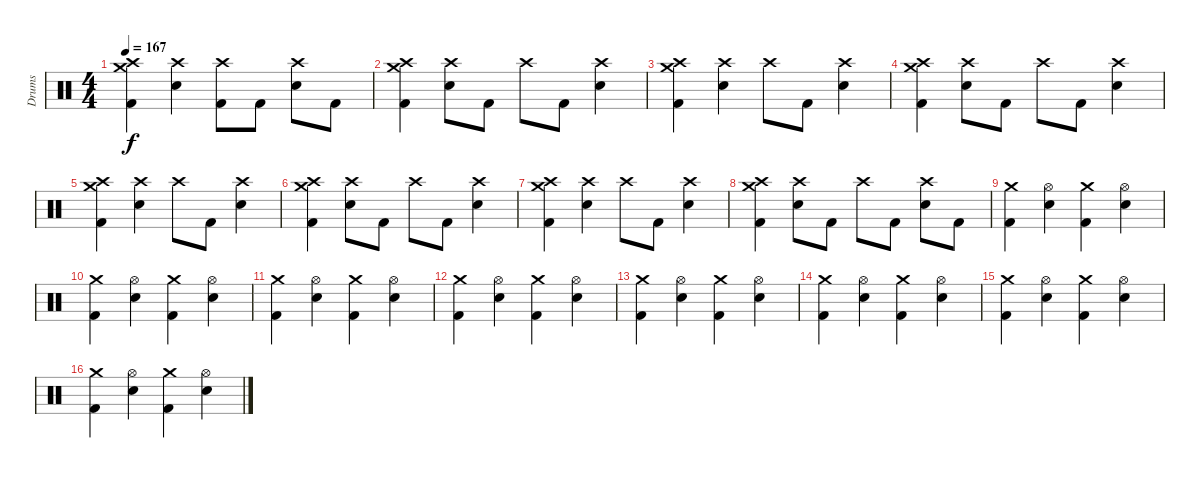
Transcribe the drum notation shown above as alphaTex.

\track ("Drums" "Drums") {instrument percussion}
\staff {score}
\articulation defaults
\ts (4 4)
\tempo 167
\clef neutral
\ks c
("Crash medium (hit)" "Crash high (hit)" "Kick (hit) 2").4{dy f} ("Crash high (hit)" "Snare (hit) 2").4 ("Crash high (hit)" "Kick (hit) 2").8 "Kick (hit) 2".8 ("Crash high (hit)" "Snare (hit) 2").8 "Kick (hit) 2".8 |
("Crash medium (hit)" "Crash high (hit)" "Kick (hit) 2").4 ("Crash high (hit)" "Snare (hit) 2").8 "Kick (hit) 2".8 "Crash high (hit)".8 "Kick (hit) 2".8 ("Crash high (hit)" "Snare (hit) 2").4 |
("Crash medium (hit)" "Crash high (hit)" "Kick (hit) 2").4 ("Crash high (hit)" "Snare (hit) 2").4 "Crash high (hit)".8 "Kick (hit) 2".8 ("Crash high (hit)" "Snare (hit) 2").4 |
("Crash medium (hit)" "Crash high (hit)" "Kick (hit) 2").4 ("Crash high (hit)" "Snare (hit) 2").8 "Kick (hit) 2".8 "Crash high (hit)".8 "Kick (hit) 2".8 ("Crash high (hit)" "Snare (hit) 2").4 |
("Crash medium (hit)" "Crash high (hit)" "Kick (hit) 2").4 ("Crash high (hit)" "Snare (hit) 2").4 "Crash high (hit)".8 "Kick (hit) 2".8 ("Crash high (hit)" "Snare (hit) 2").4 |
("Crash medium (hit)" "Crash high (hit)" "Kick (hit) 2").4 ("Crash high (hit)" "Snare (hit) 2").8 "Kick (hit) 2".8 "Crash high (hit)".8 "Kick (hit) 2".8 ("Crash high (hit)" "Snare (hit) 2").4 |
("Crash medium (hit)" "Crash high (hit)" "Kick (hit) 2").4 ("Crash high (hit)" "Snare (hit) 2").4 "Crash high (hit)".8 "Kick (hit) 2".8 ("Crash high (hit)" "Snare (hit) 2").4 |
("Crash medium (hit)" "Crash high (hit)" "Kick (hit) 2").4 ("Crash high (hit)" "Snare (hit) 2").8 "Kick (hit) 2".8 "Crash high (hit)".8 "Kick (hit) 2".8 ("Crash high (hit)" "Snare (hit) 2").8 "Kick (hit) 2".8 |
("Crash medium (hit)" "Kick (hit) 2").4 ("Hi-Hat (open)" "Snare (hit) 2").4 ("Kick (hit) 2" "Crash medium (hit)").4 ("Hi-Hat (open)" "Snare (hit) 2").4 |
("Crash medium (hit)" "Kick (hit) 2").4 ("Hi-Hat (open)" "Snare (hit) 2").4 ("Kick (hit) 2" "Crash medium (hit)").4 ("Hi-Hat (open)" "Snare (hit) 2").4 |
("Crash medium (hit)" "Kick (hit) 2").4 ("Hi-Hat (open)" "Snare (hit) 2").4 ("Kick (hit) 2" "Crash medium (hit)").4 ("Hi-Hat (open)" "Snare (hit) 2").4 |
("Crash medium (hit)" "Kick (hit) 2").4 ("Hi-Hat (open)" "Snare (hit) 2").4 ("Kick (hit) 2" "Crash medium (hit)").4 ("Hi-Hat (open)" "Snare (hit) 2").4 |
("Crash medium (hit)" "Kick (hit) 2").4 ("Hi-Hat (open)" "Snare (hit) 2").4 ("Kick (hit) 2" "Crash medium (hit)").4 ("Hi-Hat (open)" "Snare (hit) 2").4 |
("Crash medium (hit)" "Kick (hit) 2").4 ("Hi-Hat (open)" "Snare (hit) 2").4 ("Kick (hit) 2" "Crash medium (hit)").4 ("Hi-Hat (open)" "Snare (hit) 2").4 |
("Crash medium (hit)" "Kick (hit) 2").4 ("Hi-Hat (open)" "Snare (hit) 2").4 ("Kick (hit) 2" "Crash medium (hit)").4 ("Hi-Hat (open)" "Snare (hit) 2").4 |
("Crash medium (hit)" "Kick (hit) 2").4 ("Hi-Hat (open)" "Snare (hit) 2").4 ("Kick (hit) 2" "Crash medium (hit)").4 ("Hi-Hat (open)" "Snare (hit) 2").4
